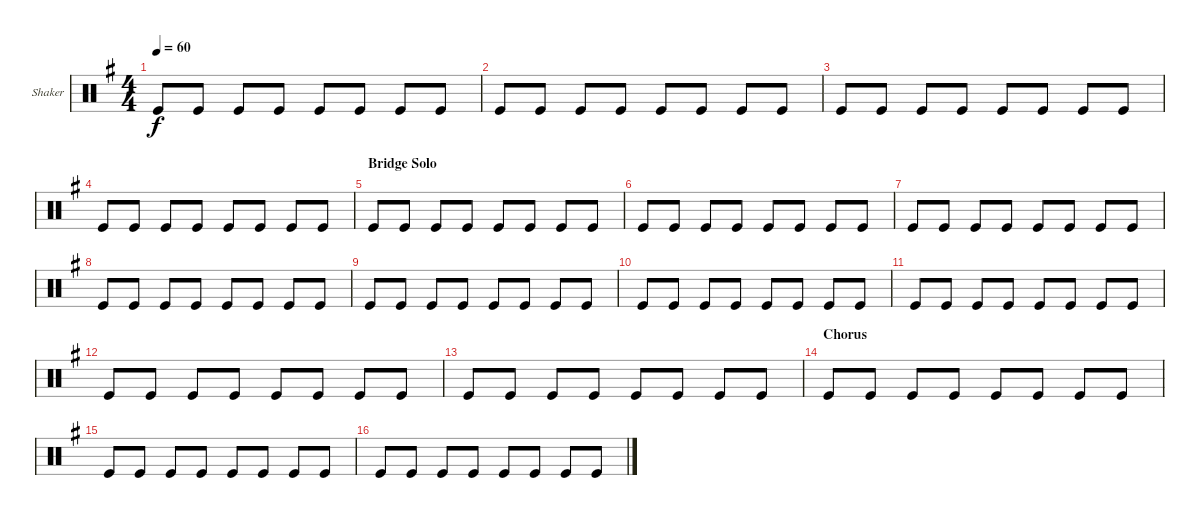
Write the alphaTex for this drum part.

\defaultSystemsLayout 4
\bracketExtendMode groupsimilarinstruments
\firstSystemTrackNameOrientation horizontal
\otherSystemsTrackNameOrientation horizontal
\track ("Shaker" "Shaker") {instrument percussion}
\staff {score}
\articulation defaults
\ts (4 4)
\tempo 60
\clef neutral
\scale
0.333333
\ks g "Kick (hit)".8{dy f} "Kick (hit)".8 "Kick (hit)".8 "Kick (hit)".8 "Kick (hit)".8 "Kick (hit)".8 "Kick (hit)".8 "Kick (hit)".8
|
\scale
0.333333 "Kick (hit)".8 "Kick (hit)".8 "Kick (hit)".8 "Kick (hit)".8 "Kick (hit)".8 "Kick (hit)".8 "Kick (hit)".8 "Kick (hit)".8 |
\scale
0.333333 "Kick (hit)".8 "Kick (hit)".8 "Kick (hit)".8 "Kick (hit)".8 "Kick (hit)".8 "Kick (hit)".8 "Kick (hit)".8 "Kick (hit)".8 |
\scale
0.333333 "Kick (hit)".8 "Kick (hit)".8 "Kick (hit)".8 "Kick (hit)".8 "Kick (hit)".8 "Kick (hit)".8 "Kick (hit)".8 "Kick (hit)".8 |
\section ("" "Bridge Solo")
\scale
0.333333 "Kick (hit)".8 "Kick (hit)".8 "Kick (hit)".8 "Kick (hit)".8 "Kick (hit)".8 "Kick (hit)".8 "Kick (hit)".8 "Kick (hit)".8 |
\scale
0.333333 "Kick (hit)".8 "Kick (hit)".8 "Kick (hit)".8 "Kick (hit)".8 "Kick (hit)".8 "Kick (hit)".8 "Kick (hit)".8 "Kick (hit)".8 |
\scale
0.333333 "Kick (hit)".8 "Kick (hit)".8 "Kick (hit)".8 "Kick (hit)".8 "Kick (hit)".8 "Kick (hit)".8 "Kick (hit)".8 "Kick (hit)".8 |
\scale
0.333333 "Kick (hit)".8 "Kick (hit)".8 "Kick (hit)".8 "Kick (hit)".8 "Kick (hit)".8 "Kick (hit)".8 "Kick (hit)".8 "Kick (hit)".8 |
\scale
0.333333 "Kick (hit)".8 "Kick (hit)".8 "Kick (hit)".8 "Kick (hit)".8 "Kick (hit)".8 "Kick (hit)".8 "Kick (hit)".8 "Kick (hit)".8 |
\scale
0.333333 "Kick (hit)".8 "Kick (hit)".8 "Kick (hit)".8 "Kick (hit)".8 "Kick (hit)".8 "Kick (hit)".8 "Kick (hit)".8 "Kick (hit)".8 |
\scale
0.333333 "Kick (hit)".8 "Kick (hit)".8 "Kick (hit)".8 "Kick (hit)".8 "Kick (hit)".8 "Kick (hit)".8 "Kick (hit)".8 "Kick (hit)".8 |
\scale
0.333333 "Kick (hit)".8 "Kick (hit)".8 "Kick (hit)".8 "Kick (hit)".8 "Kick (hit)".8 "Kick (hit)".8 "Kick (hit)".8 "Kick (hit)".8 |
\scale
0.333333 "Kick (hit)".8 "Kick (hit)".8 "Kick (hit)".8 "Kick (hit)".8 "Kick (hit)".8 "Kick (hit)".8 "Kick (hit)".8 "Kick (hit)".8 |
\section ("" "Chorus")
\scale
0.333333 "Kick (hit)".8 "Kick (hit)".8 "Kick (hit)".8 "Kick (hit)".8 "Kick (hit)".8 "Kick (hit)".8 "Kick (hit)".8 "Kick (hit)".8 |
\scale
0.333333 "Kick (hit)".8 "Kick (hit)".8 "Kick (hit)".8 "Kick (hit)".8 "Kick (hit)".8 "Kick (hit)".8 "Kick (hit)".8 "Kick (hit)".8 |
\scale
0.333333 "Kick (hit)".8 "Kick (hit)".8 "Kick (hit)".8 "Kick (hit)".8 "Kick (hit)".8 "Kick (hit)".8 "Kick (hit)".8 "Kick (hit)".8
